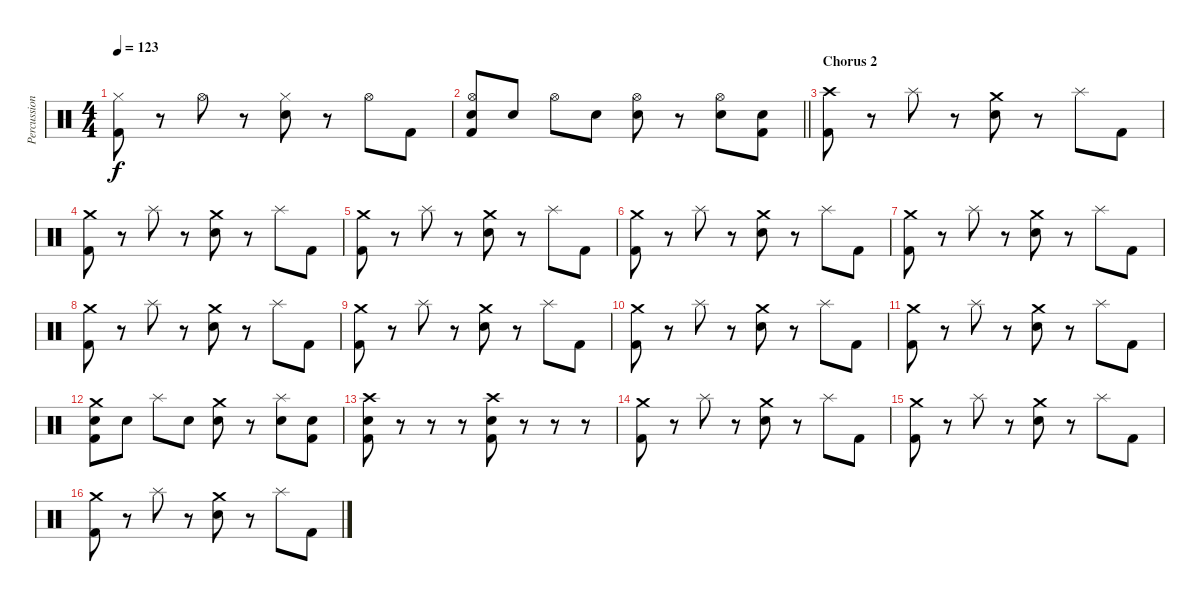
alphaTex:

\track ("Percussion" "Percussion") {instrument percussion}
\staff {score}
\articulation defaults
\ts (4 4)
\tempo 123
\clef neutral
\ks c
("Hi-Hat (closed)" "Kick (hit) 2").8{dy f} r.8 "Hi-Hat (open)".8 r.8 ("Hi-Hat (closed)" "Snare (hit) 2").8 r.8 "Hi-Hat (open)".8 "Kick (hit) 2".8 |
\barLineRight lightlight
("Hi-Hat (open)" "Snare (hit) 2" "Kick (hit) 2").8 "Snare (hit) 2".8 "Hi-Hat (open)".8 "Snare (hit) 2".8 ("Hi-Hat (open)" "Snare (hit) 2").8 r.8 ("Hi-Hat (open)" "Snare (hit) 2").8 ("Snare (hit) 2" "Kick (hit) 2").8 |
\section ("" "Chorus 2")
("Crash high (hit)" "Kick (hit) 2").8 r.8 "Splash (hit)".8 r.8 ("Crash medium (hit)" "Snare (hit) 2").8 r.8 "Splash (hit)".8 "Kick (hit) 2".8 |
("Crash medium (hit)" "Kick (hit) 2").8 r.8 "Splash (hit)".8 r.8 ("Crash medium (hit)" "Snare (hit) 2").8 r.8 "Splash (hit)".8 "Kick (hit) 2".8 |
("Crash medium (hit)" "Kick (hit) 2").8 r.8 "Splash (hit)".8 r.8 ("Crash medium (hit)" "Snare (hit) 2").8 r.8 "Splash (hit)".8 "Kick (hit) 2".8 |
("Crash medium (hit)" "Kick (hit) 2").8 r.8 "Splash (hit)".8 r.8 ("Crash medium (hit)" "Snare (hit) 2").8 r.8 "Splash (hit)".8 "Kick (hit) 2".8 |
("Crash medium (hit)" "Kick (hit) 2").8 r.8 "Splash (hit)".8 r.8 ("Crash medium (hit)" "Snare (hit) 2").8 r.8 "Splash (hit)".8 "Kick (hit) 2".8 |
("Crash medium (hit)" "Kick (hit) 2").8 r.8 "Splash (hit)".8 r.8 ("Crash medium (hit)" "Snare (hit) 2").8 r.8 "Splash (hit)".8 "Kick (hit) 2".8 |
("Crash medium (hit)" "Kick (hit) 2").8 r.8 "Splash (hit)".8 r.8 ("Crash medium (hit)" "Snare (hit) 2").8 r.8 "Splash (hit)".8 "Kick (hit) 2".8 |
("Crash medium (hit)" "Kick (hit) 2").8 r.8 "Splash (hit)".8 r.8 ("Crash medium (hit)" "Snare (hit) 2").8 r.8 "Splash (hit)".8 "Kick (hit) 2".8 |
("Crash medium (hit)" "Kick (hit) 2").8 r.8 "Splash (hit)".8 r.8 ("Crash medium (hit)" "Snare (hit) 2").8 r.8 "Splash (hit)".8 "Kick (hit) 2".8 |
("Crash medium (hit)" "Snare (hit) 2" "Kick (hit) 2").8 "Snare (hit) 2".8 "Splash (hit)".8 "Snare (hit) 2".8 ("Crash medium (hit)" "Snare (hit) 2").8 r.8 ("Splash (hit)" "Snare (hit) 2").8 ("Snare (hit) 2" "Kick (hit) 2").8 |
("Crash high (hit)" "Snare (hit) 2" "Kick (hit) 2").8 r.8 r.8 r.8 ("Crash high (hit)" "Snare (hit) 2" "Kick (hit) 2").8 r.8 r.8 r.8 |
("Crash medium (hit)" "Kick (hit) 2").8 r.8 "Splash (hit)".8 r.8 ("Crash medium (hit)" "Snare (hit) 2").8 r.8 "Splash (hit)".8 "Kick (hit) 2".8 |
("Crash medium (hit)" "Kick (hit) 2").8 r.8 "Splash (hit)".8 r.8 ("Crash medium (hit)" "Snare (hit) 2").8 r.8 "Splash (hit)".8 "Kick (hit) 2".8 |
("Crash medium (hit)" "Kick (hit) 2").8 r.8 "Splash (hit)".8 r.8 ("Crash medium (hit)" "Snare (hit) 2").8 r.8 "Splash (hit)".8 "Kick (hit) 2".8
